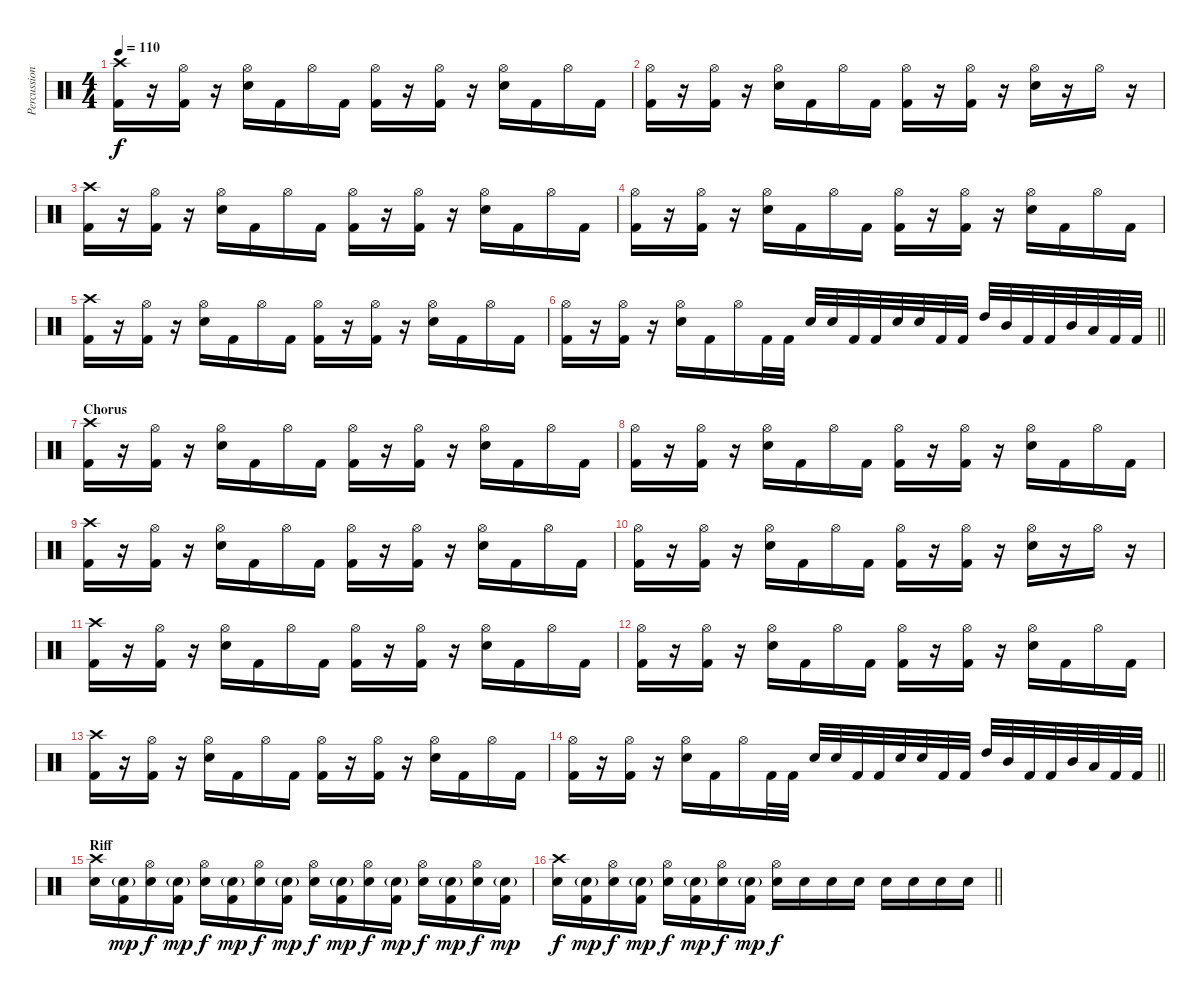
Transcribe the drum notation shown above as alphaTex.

\track ("Percussion" "Percussion") {instrument percussion}
\staff {score}
\articulation defaults
\ts (4 4)
\tempo 110
\clef neutral
\ks c
("Crash high (hit)" "Kick (hit) 2").16{dy f} r.16 ("Hi-Hat (open)" "Kick (hit) 2").16 r.16 ("Hi-Hat (open)" "Snare (hit) 2").16 "Kick (hit) 2".16 "Hi-Hat (open)".16 "Kick (hit) 2".16 ("Hi-Hat (open)" "Kick (hit) 2").16 r.16 ("Hi-Hat (open)" "Kick (hit) 2").16 r.16 ("Hi-Hat (open)" "Snare (hit) 2").16 "Kick (hit) 2".16 "Hi-Hat (open)".16 "Kick (hit) 2".16 |
("Hi-Hat (open)" "Kick (hit) 2").16 r.16 ("Hi-Hat (open)" "Kick (hit) 2").16 r.16 ("Hi-Hat (open)" "Snare (hit) 2").16 "Kick (hit) 2".16 "Hi-Hat (open)".16 "Kick (hit) 2".16 ("Hi-Hat (open)" "Kick (hit) 2").16 r.16 ("Hi-Hat (open)" "Kick (hit) 2").16 r.16 ("Hi-Hat (open)" "Snare (hit) 2").16 r.16 "Hi-Hat (open)".16 r.16 |
("Crash high (hit)" "Kick (hit) 2").16 r.16 ("Hi-Hat (open)" "Kick (hit) 2").16 r.16 ("Hi-Hat (open)" "Snare (hit) 2").16 "Kick (hit) 2".16 "Hi-Hat (open)".16 "Kick (hit) 2".16 ("Hi-Hat (open)" "Kick (hit) 2").16 r.16 ("Hi-Hat (open)" "Kick (hit) 2").16 r.16 ("Hi-Hat (open)" "Snare (hit) 2").16 "Kick (hit) 2".16 "Hi-Hat (open)".16 "Kick (hit) 2".16 |
("Hi-Hat (open)" "Kick (hit) 2").16 r.16 ("Hi-Hat (open)" "Kick (hit) 2").16 r.16 ("Hi-Hat (open)" "Snare (hit) 2").16 "Kick (hit) 2".16 "Hi-Hat (open)".16 "Kick (hit) 2".16 ("Hi-Hat (open)" "Kick (hit) 2").16 r.16 ("Hi-Hat (open)" "Kick (hit) 2").16 r.16 ("Hi-Hat (open)" "Snare (hit) 2").16 "Kick (hit) 2".16 "Hi-Hat (open)".16 "Kick (hit) 2".16 |
("Crash high (hit)" "Kick (hit) 2").16 r.16 ("Hi-Hat (open)" "Kick (hit) 2").16 r.16 ("Hi-Hat (open)" "Snare (hit) 2").16 "Kick (hit) 2".16 "Hi-Hat (open)".16 "Kick (hit) 2".16 ("Hi-Hat (open)" "Kick (hit) 2").16 r.16 ("Hi-Hat (open)" "Kick (hit) 2").16 r.16 ("Hi-Hat (open)" "Snare (hit) 2").16 "Kick (hit) 2".16 "Hi-Hat (open)".16 "Kick (hit) 2".16 |
\barLineRight lightlight
("Hi-Hat (open)" "Kick (hit) 2").16 r.16 ("Hi-Hat (open)" "Kick (hit) 2").16 r.16 ("Hi-Hat (open)" "Snare (hit) 2").16 "Kick (hit) 2".16 "Hi-Hat (open)".16 "Kick (hit) 2".32 "Kick (hit) 2".32 "Snare (hit) 2".32 "Snare (hit) 2".32 "Kick (hit) 2".32 "Kick (hit) 2".32 "Snare (hit) 2".32 "Snare (hit) 2".32 "Kick (hit) 2".32 "Kick (hit) 2".32 "High Tom (hit)".32 "Mid Tom (hit)".32 "Kick (hit) 2".32 "Kick (hit) 2".32 "Mid Tom (hit)".32 "Low Tom (hit)".32 "Kick (hit) 2".32 "Kick (hit) 2".32 |
\section ("" "Chorus")
("Crash high (hit)" "Kick (hit) 2").16 r.16 ("Hi-Hat (open)" "Kick (hit) 2").16 r.16 ("Hi-Hat (open)" "Snare (hit) 2").16 "Kick (hit) 2".16 "Hi-Hat (open)".16 "Kick (hit) 2".16 ("Hi-Hat (open)" "Kick (hit) 2").16 r.16 ("Hi-Hat (open)" "Kick (hit) 2").16 r.16 ("Hi-Hat (open)" "Snare (hit) 2").16 "Kick (hit) 2".16 "Hi-Hat (open)".16 "Kick (hit) 2".16 |
("Hi-Hat (open)" "Kick (hit) 2").16 r.16 ("Hi-Hat (open)" "Kick (hit) 2").16 r.16 ("Hi-Hat (open)" "Snare (hit) 2").16 "Kick (hit) 2".16 "Hi-Hat (open)".16 "Kick (hit) 2".16 ("Hi-Hat (open)" "Kick (hit) 2").16 r.16 ("Hi-Hat (open)" "Kick (hit) 2").16 r.16 ("Hi-Hat (open)" "Snare (hit) 2").16 "Kick (hit) 2".16 "Hi-Hat (open)".16 "Kick (hit) 2".16 |
("Crash high (hit)" "Kick (hit) 2").16 r.16 ("Hi-Hat (open)" "Kick (hit) 2").16 r.16 ("Hi-Hat (open)" "Snare (hit) 2").16 "Kick (hit) 2".16 "Hi-Hat (open)".16 "Kick (hit) 2".16 ("Hi-Hat (open)" "Kick (hit) 2").16 r.16 ("Hi-Hat (open)" "Kick (hit) 2").16 r.16 ("Hi-Hat (open)" "Snare (hit) 2").16 "Kick (hit) 2".16 "Hi-Hat (open)".16 "Kick (hit) 2".16 |
("Hi-Hat (open)" "Kick (hit) 2").16 r.16 ("Hi-Hat (open)" "Kick (hit) 2").16 r.16 ("Hi-Hat (open)" "Snare (hit) 2").16 "Kick (hit) 2".16 "Hi-Hat (open)".16 "Kick (hit) 2".16 ("Hi-Hat (open)" "Kick (hit) 2").16 r.16 ("Hi-Hat (open)" "Kick (hit) 2").16 r.16 ("Hi-Hat (open)" "Snare (hit) 2").16 r.16 "Hi-Hat (open)".16 r.16 |
("Crash high (hit)" "Kick (hit) 2").16 r.16 ("Hi-Hat (open)" "Kick (hit) 2").16 r.16 ("Hi-Hat (open)" "Snare (hit) 2").16 "Kick (hit) 2".16 "Hi-Hat (open)".16 "Kick (hit) 2".16 ("Hi-Hat (open)" "Kick (hit) 2").16 r.16 ("Hi-Hat (open)" "Kick (hit) 2").16 r.16 ("Hi-Hat (open)" "Snare (hit) 2").16 "Kick (hit) 2".16 "Hi-Hat (open)".16 "Kick (hit) 2".16 |
("Hi-Hat (open)" "Kick (hit) 2").16 r.16 ("Hi-Hat (open)" "Kick (hit) 2").16 r.16 ("Hi-Hat (open)" "Snare (hit) 2").16 "Kick (hit) 2".16 "Hi-Hat (open)".16 "Kick (hit) 2".16 ("Hi-Hat (open)" "Kick (hit) 2").16 r.16 ("Hi-Hat (open)" "Kick (hit) 2").16 r.16 ("Hi-Hat (open)" "Snare (hit) 2").16 "Kick (hit) 2".16 "Hi-Hat (open)".16 "Kick (hit) 2".16 |
("Crash high (hit)" "Kick (hit) 2").16 r.16 ("Hi-Hat (open)" "Kick (hit) 2").16 r.16 ("Hi-Hat (open)" "Snare (hit) 2").16 "Kick (hit) 2".16 "Hi-Hat (open)".16 "Kick (hit) 2".16 ("Hi-Hat (open)" "Kick (hit) 2").16 r.16 ("Hi-Hat (open)" "Kick (hit) 2").16 r.16 ("Hi-Hat (open)" "Snare (hit) 2").16 "Kick (hit) 2".16 "Hi-Hat (open)".16 "Kick (hit) 2".16 |
\barLineRight lightlight
("Hi-Hat (open)" "Kick (hit) 2").16 r.16 ("Hi-Hat (open)" "Kick (hit) 2").16 r.16 ("Hi-Hat (open)" "Snare (hit) 2").16 "Kick (hit) 2".16 "Hi-Hat (open)".16 "Kick (hit) 2".32 "Kick (hit) 2".32 "Snare (hit) 2".32 "Snare (hit) 2".32 "Kick (hit) 2".32 "Kick (hit) 2".32 "Snare (hit) 2".32 "Snare (hit) 2".32 "Kick (hit) 2".32 "Kick (hit) 2".32 "High Tom (hit)".32 "Mid Tom (hit)".32 "Kick (hit) 2".32 "Kick (hit) 2".32 "Mid Tom (hit)".32 "Low Tom (hit)".32 "Kick (hit) 2".32 "Kick (hit) 2".32 |
\section ("" "Riff")
("Crash high (hit)" "Snare (hit) 2").16 ("Snare (hit) 2"{g} "Kick (hit) 2").16{dy mp} ("Hi-Hat (open)" "Snare (hit) 2").16{dy f} ("Snare (hit) 2"{g} "Kick (hit) 2").16{dy mp} ("Hi-Hat (open)" "Snare (hit) 2").16{dy f} ("Snare (hit) 2"{g} "Kick (hit) 2").16{dy mp} ("Hi-Hat (open)" "Snare (hit) 2").16{dy f} ("Snare (hit) 2"{g} "Kick (hit) 2").16{dy mp} ("Hi-Hat (open)" "Snare (hit) 2").16{dy f} ("Snare (hit) 2"{g} "Kick (hit) 2").16{dy mp} ("Hi-Hat (open)" "Snare (hit) 2").16{dy f} ("Snare (hit) 2"{g} "Kick (hit) 2").16{dy mp} ("Hi-Hat (open)" "Snare (hit) 2").16{dy f} ("Snare (hit) 2"{g} "Kick (hit) 2").16{dy mp} ("Hi-Hat (open)" "Snare (hit) 2").16{dy f} ("Snare (hit) 2"{g} "Kick (hit) 2").16{dy mp} |
\barLineRight lightlight
("Crash high (hit)" "Snare (hit) 2").16{dy f} ("Snare (hit) 2"{g} "Kick (hit) 2").16{dy mp} ("Hi-Hat (open)" "Snare (hit) 2").16{dy f} ("Snare (hit) 2"{g} "Kick (hit) 2").16{dy mp} ("Hi-Hat (open)" "Snare (hit) 2").16{dy f} ("Snare (hit) 2"{g} "Kick (hit) 2").16{dy mp} ("Hi-Hat (open)" "Snare (hit) 2").16{dy f} ("Snare (hit) 2"{g} "Kick (hit) 2").16{dy mp} ("Hi-Hat (open)" "Snare (hit) 2").16{dy f} "Snare (hit) 2".16 "Snare (hit) 2".16 "Snare (hit) 2".16 "Snare (hit) 2".16 "Snare (hit) 2".16 "Snare (hit) 2".16 "Snare (hit) 2".16
